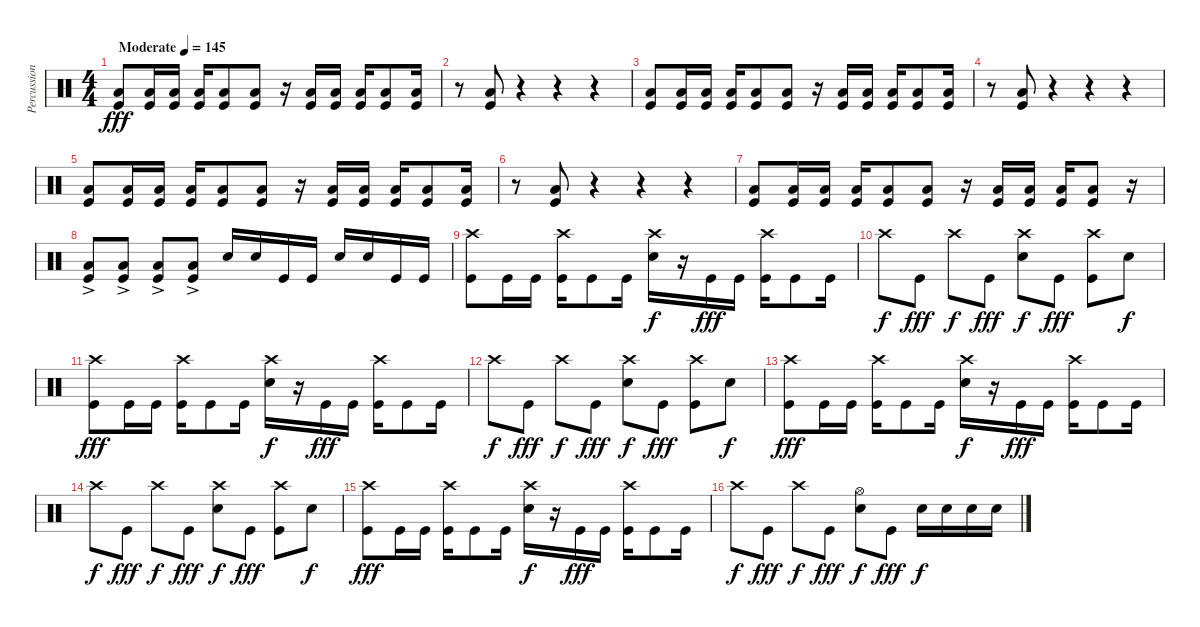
\track ("Percussion" "Percussion") {instrument percussion}
\staff {score}
\articulation defaults
\ts (4 4)
\tempo (145 "Moderate")
\clef neutral
\ks c
("Low Floor Tom (hit)" "Kick (hit)").8{dy fff} ("Low Floor Tom (hit)" "Kick (hit)").16 ("Low Floor Tom (hit)" "Kick (hit)").16 ("Low Floor Tom (hit)" "Kick (hit)").16 ("Low Floor Tom (hit)" "Kick (hit)").8 ("Low Floor Tom (hit)" "Kick (hit)").8 r.16 ("Low Floor Tom (hit)" "Kick (hit)").16 ("Low Floor Tom (hit)" "Kick (hit)").16 ("Low Floor Tom (hit)" "Kick (hit)").16 ("Low Floor Tom (hit)" "Kick (hit)").8 ("Low Floor Tom (hit)" "Kick (hit)").16 |
r.8 ("Low Floor Tom (hit)" "Kick (hit)").8 r.4 r.4 r.4 |
("Low Floor Tom (hit)" "Kick (hit)").8 ("Low Floor Tom (hit)" "Kick (hit)").16 ("Low Floor Tom (hit)" "Kick (hit)").16 ("Low Floor Tom (hit)" "Kick (hit)").16 ("Low Floor Tom (hit)" "Kick (hit)").8 ("Low Floor Tom (hit)" "Kick (hit)").8 r.16 ("Low Floor Tom (hit)" "Kick (hit)").16 ("Low Floor Tom (hit)" "Kick (hit)").16 ("Low Floor Tom (hit)" "Kick (hit)").16 ("Low Floor Tom (hit)" "Kick (hit)").8 ("Low Floor Tom (hit)" "Kick (hit)").16 |
r.8 ("Low Floor Tom (hit)" "Kick (hit)").8 r.4 r.4 r.4 |
("Low Floor Tom (hit)" "Kick (hit)").8 ("Low Floor Tom (hit)" "Kick (hit)").16 ("Low Floor Tom (hit)" "Kick (hit)").16 ("Low Floor Tom (hit)" "Kick (hit)").16 ("Low Floor Tom (hit)" "Kick (hit)").8 ("Low Floor Tom (hit)" "Kick (hit)").8 r.16 ("Low Floor Tom (hit)" "Kick (hit)").16 ("Low Floor Tom (hit)" "Kick (hit)").16 ("Low Floor Tom (hit)" "Kick (hit)").16 ("Low Floor Tom (hit)" "Kick (hit)").8 ("Low Floor Tom (hit)" "Kick (hit)").16 |
r.8 ("Low Floor Tom (hit)" "Kick (hit)").8 r.4 r.4 r.4 |
("Low Floor Tom (hit)" "Kick (hit)").8 ("Low Floor Tom (hit)" "Kick (hit)").16 ("Low Floor Tom (hit)" "Kick (hit)").16 ("Low Floor Tom (hit)" "Kick (hit)").16 ("Low Floor Tom (hit)" "Kick (hit)").8 ("Low Floor Tom (hit)" "Kick (hit)").8 r.16 ("Low Floor Tom (hit)" "Kick (hit)").16 ("Low Floor Tom (hit)" "Kick (hit)").16 ("Low Floor Tom (hit)" "Kick (hit)").16 ("Low Floor Tom (hit)" "Kick (hit)").8 r.16 |
("Low Floor Tom (hit)"{ac} "Kick (hit)").8 ("Low Floor Tom (hit)"{ac} "Kick (hit)").8 ("Low Floor Tom (hit)"{ac} "Kick (hit)").8 ("Low Floor Tom (hit)"{ac} "Kick (hit)").8 "Electric Snare (hit)".16 "Electric Snare (hit)".16 "Kick (hit)".16 "Kick (hit)".16 "Electric Snare (hit)".16 "Electric Snare (hit)".16 "Kick (hit)".16 "Kick (hit)".16 |
("Crash high (hit)" "Kick (hit)").8 "Kick (hit)".16 "Kick (hit)".16 ("Crash high (hit)" "Kick (hit)").16 "Kick (hit)".8 "Kick (hit)".16 ("Crash high (hit)" "Electric Snare (hit)").16{dy f} r.16 "Kick (hit)".16{dy fff} "Kick (hit)".16 ("Crash high (hit)" "Kick (hit)").16 "Kick (hit)".8 "Kick (hit)".16 |
"Crash high (hit)".8{dy f} "Kick (hit)".8{dy fff} "Crash high (hit)".8{dy f} "Kick (hit)".8{dy fff} ("Crash high (hit)" "Electric Snare (hit)").8{dy f} "Kick (hit)".8{dy fff} ("Crash high (hit)" "Kick (hit)").8 "Electric Snare (hit)".8{dy f} |
("Crash high (hit)" "Kick (hit)").8{dy fff} "Kick (hit)".16 "Kick (hit)".16 ("Crash high (hit)" "Kick (hit)").16 "Kick (hit)".8 "Kick (hit)".16 ("Crash high (hit)" "Electric Snare (hit)").16{dy f} r.16 "Kick (hit)".16{dy fff} "Kick (hit)".16 ("Crash high (hit)" "Kick (hit)").16 "Kick (hit)".8 "Kick (hit)".16 |
"Crash high (hit)".8{dy f} "Kick (hit)".8{dy fff} "Crash high (hit)".8{dy f} "Kick (hit)".8{dy fff} ("Crash high (hit)" "Electric Snare (hit)").8{dy f} "Kick (hit)".8{dy fff} ("Crash high (hit)" "Kick (hit)").8 "Electric Snare (hit)".8{dy f} |
("Crash high (hit)" "Kick (hit)").8{dy fff} "Kick (hit)".16 "Kick (hit)".16 ("Crash high (hit)" "Kick (hit)").16 "Kick (hit)".8 "Kick (hit)".16 ("Crash high (hit)" "Electric Snare (hit)").16{dy f} r.16 "Kick (hit)".16{dy fff} "Kick (hit)".16 ("Crash high (hit)" "Kick (hit)").16 "Kick (hit)".8 "Kick (hit)".16 |
"Crash high (hit)".8{dy f} "Kick (hit)".8{dy fff} "Crash high (hit)".8{dy f} "Kick (hit)".8{dy fff} ("Crash high (hit)" "Electric Snare (hit)").8{dy f} "Kick (hit)".8{dy fff} ("Crash high (hit)" "Kick (hit)").8 "Electric Snare (hit)".8{dy f} |
("Crash high (hit)" "Kick (hit)").8{dy fff} "Kick (hit)".16 "Kick (hit)".16 ("Crash high (hit)" "Kick (hit)").16 "Kick (hit)".8 "Kick (hit)".16 ("Crash high (hit)" "Electric Snare (hit)").16{dy f} r.16 "Kick (hit)".16{dy fff} "Kick (hit)".16 ("Crash high (hit)" "Kick (hit)").16 "Kick (hit)".8 "Kick (hit)".16 |
"Crash high (hit)".8{dy f} "Kick (hit)".8{dy fff} "Crash high (hit)".8{dy f} "Kick (hit)".8{dy fff} ("Hi-Hat (open)" "Electric Snare (hit)").8{dy f} "Kick (hit)".8{dy fff} "Electric Snare (hit)".16{dy f} "Electric Snare (hit)".16 "Electric Snare (hit)".16 "Electric Snare (hit)".16
